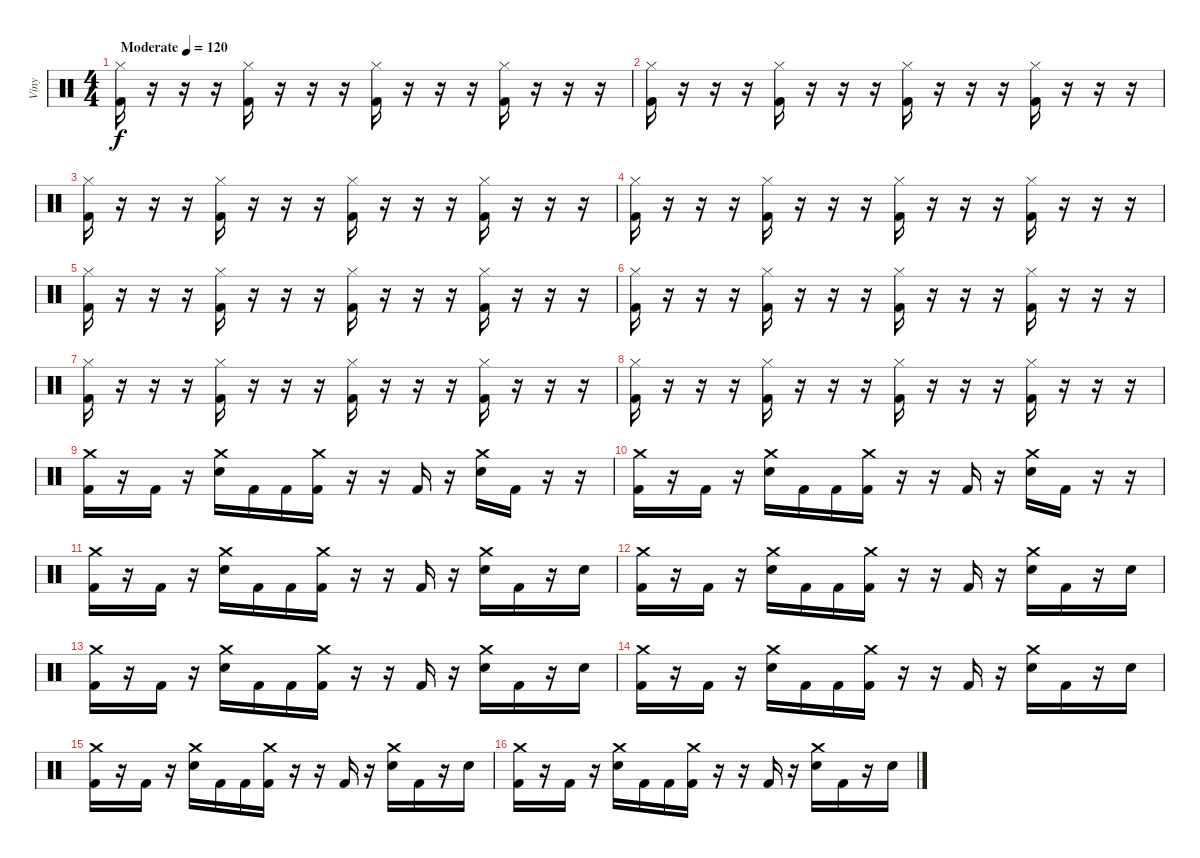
\track ("Viny" "Viny") {instrument percussion}
\staff {score}
\articulation defaults
\ts (4 4)
\tempo (120 "Moderate")
\tempo 130
\tempo (120 "Moderate")
\clef neutral
\ks c
("Hi-Hat (closed)" "Kick (hit) 2").16{dy f} r.16 r.16 r.16 ("Hi-Hat (closed)" "Kick (hit) 2").16 r.16 r.16 r.16 ("Hi-Hat (closed)" "Kick (hit) 2").16 r.16 r.16 r.16 ("Hi-Hat (closed)" "Kick (hit) 2").16 r.16 r.16 r.16 |
("Hi-Hat (closed)" "Kick (hit) 2").16 r.16 r.16 r.16 ("Hi-Hat (closed)" "Kick (hit) 2").16 r.16 r.16 r.16 ("Hi-Hat (closed)" "Kick (hit) 2").16 r.16 r.16 r.16 ("Hi-Hat (closed)" "Kick (hit) 2").16 r.16 r.16 r.16 |
("Hi-Hat (closed)" "Kick (hit) 2").16 r.16 r.16 r.16 ("Hi-Hat (closed)" "Kick (hit) 2").16 r.16 r.16 r.16 ("Hi-Hat (closed)" "Kick (hit) 2").16 r.16 r.16 r.16 ("Hi-Hat (closed)" "Kick (hit) 2").16 r.16 r.16 r.16 |
("Hi-Hat (closed)" "Kick (hit) 2").16 r.16 r.16 r.16 ("Hi-Hat (closed)" "Kick (hit) 2").16 r.16 r.16 r.16 ("Hi-Hat (closed)" "Kick (hit) 2").16 r.16 r.16 r.16 ("Hi-Hat (closed)" "Kick (hit) 2").16 r.16 r.16 r.16 |
("Hi-Hat (closed)" "Kick (hit) 2").16 r.16 r.16 r.16 ("Hi-Hat (closed)" "Kick (hit) 2").16 r.16 r.16 r.16 ("Hi-Hat (closed)" "Kick (hit) 2").16 r.16 r.16 r.16 ("Hi-Hat (closed)" "Kick (hit) 2").16 r.16 r.16 r.16 |
("Hi-Hat (closed)" "Kick (hit) 2").16 r.16 r.16 r.16 ("Hi-Hat (closed)" "Kick (hit) 2").16 r.16 r.16 r.16 ("Hi-Hat (closed)" "Kick (hit) 2").16 r.16 r.16 r.16 ("Hi-Hat (closed)" "Kick (hit) 2").16 r.16 r.16 r.16 |
("Hi-Hat (closed)" "Kick (hit) 2").16 r.16 r.16 r.16 ("Hi-Hat (closed)" "Kick (hit) 2").16 r.16 r.16 r.16 ("Hi-Hat (closed)" "Kick (hit) 2").16 r.16 r.16 r.16 ("Hi-Hat (closed)" "Kick (hit) 2").16 r.16 r.16 r.16 |
("Hi-Hat (closed)" "Kick (hit) 2").16 r.16 r.16 r.16 ("Hi-Hat (closed)" "Kick (hit) 2").16 r.16 r.16 r.16 ("Hi-Hat (closed)" "Kick (hit) 2").16 r.16 r.16 r.16 ("Hi-Hat (closed)" "Kick (hit) 2").16 r.16 r.16 r.16 |
("Crash medium (hit)" "Kick (hit) 2").16 r.16 "Kick (hit) 2".16 r.16 ("Crash medium (hit)" "Electric Snare (hit)").16 "Kick (hit) 2".16 "Kick (hit) 2".16 ("Crash medium (hit)" "Kick (hit) 2").16 r.16 r.16 "Kick (hit) 2".16 r.16 ("Crash medium (hit)" "Electric Snare (hit)").16 "Kick (hit) 2".16 r.16 r.16 |
("Crash medium (hit)" "Kick (hit) 2").16 r.16 "Kick (hit) 2".16 r.16 ("Crash medium (hit)" "Electric Snare (hit)").16 "Kick (hit) 2".16 "Kick (hit) 2".16 ("Crash medium (hit)" "Kick (hit) 2").16 r.16 r.16 "Kick (hit) 2".16 r.16 ("Crash medium (hit)" "Electric Snare (hit)").16 "Kick (hit) 2".16 r.16 r.16 |
("Crash medium (hit)" "Kick (hit) 2").16 r.16 "Kick (hit) 2".16 r.16 ("Crash medium (hit)" "Electric Snare (hit)").16 "Kick (hit) 2".16 "Kick (hit) 2".16 ("Crash medium (hit)" "Kick (hit) 2").16 r.16 r.16 "Kick (hit) 2".16 r.16 ("Crash medium (hit)" "Electric Snare (hit)").16 "Kick (hit) 2".16 r.16 "Electric Snare (hit)".16 |
("Crash medium (hit)" "Kick (hit) 2").16 r.16 "Kick (hit) 2".16 r.16 ("Crash medium (hit)" "Electric Snare (hit)").16 "Kick (hit) 2".16 "Kick (hit) 2".16 ("Crash medium (hit)" "Kick (hit) 2").16 r.16 r.16 "Kick (hit) 2".16 r.16 ("Crash medium (hit)" "Electric Snare (hit)").16 "Kick (hit) 2".16 r.16 "Electric Snare (hit)".16 |
("Crash medium (hit)" "Kick (hit) 2").16 r.16 "Kick (hit) 2".16 r.16 ("Crash medium (hit)" "Electric Snare (hit)").16 "Kick (hit) 2".16 "Kick (hit) 2".16 ("Crash medium (hit)" "Kick (hit) 2").16 r.16 r.16 "Kick (hit) 2".16 r.16 ("Crash medium (hit)" "Electric Snare (hit)").16 "Kick (hit) 2".16 r.16 "Electric Snare (hit)".16 |
("Crash medium (hit)" "Kick (hit) 2").16 r.16 "Kick (hit) 2".16 r.16 ("Crash medium (hit)" "Electric Snare (hit)").16 "Kick (hit) 2".16 "Kick (hit) 2".16 ("Crash medium (hit)" "Kick (hit) 2").16 r.16 r.16 "Kick (hit) 2".16 r.16 ("Crash medium (hit)" "Electric Snare (hit)").16 "Kick (hit) 2".16 r.16 "Electric Snare (hit)".16 |
("Crash medium (hit)" "Kick (hit) 2").16 r.16 "Kick (hit) 2".16 r.16 ("Crash medium (hit)" "Electric Snare (hit)").16 "Kick (hit) 2".16 "Kick (hit) 2".16 ("Crash medium (hit)" "Kick (hit) 2").16 r.16 r.16 "Kick (hit) 2".16 r.16 ("Crash medium (hit)" "Electric Snare (hit)").16 "Kick (hit) 2".16 r.16 "Electric Snare (hit)".16 |
("Crash medium (hit)" "Kick (hit) 2").16 r.16 "Kick (hit) 2".16 r.16 ("Crash medium (hit)" "Electric Snare (hit)").16 "Kick (hit) 2".16 "Kick (hit) 2".16 ("Crash medium (hit)" "Kick (hit) 2").16 r.16 r.16 "Kick (hit) 2".16 r.16 ("Crash medium (hit)" "Electric Snare (hit)").16 "Kick (hit) 2".16 r.16 "Electric Snare (hit)".16
